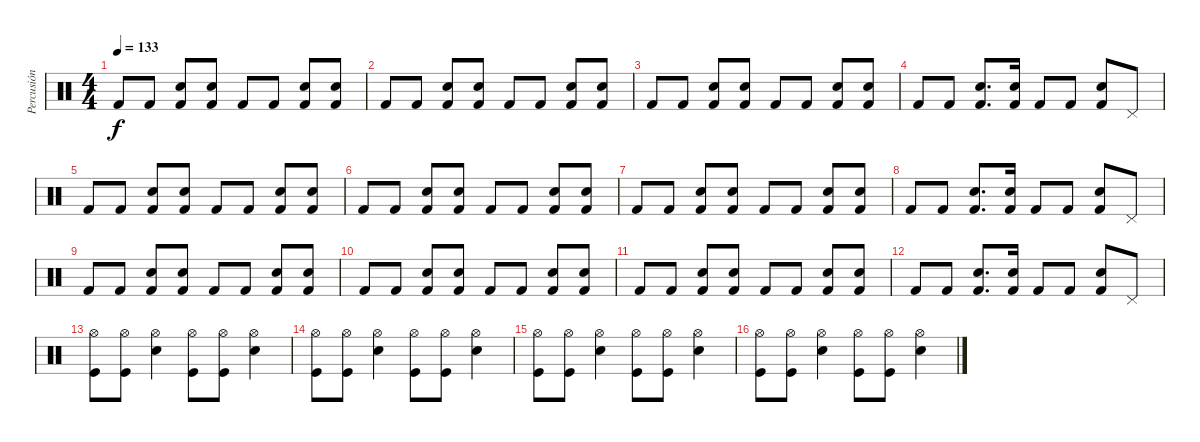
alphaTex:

\track ("Percusión" "Percusión") {instrument percussion}
\staff {score}
\articulation defaults
\ts (4 4)
\tempo 133
\clef neutral
\ks c "Kick (hit) 2".8{dy f} "Kick (hit) 2".8
("Kick (hit) 2" "Snare (hit) 2").8 ("Kick (hit) 2" "Snare (hit) 2").8 "Kick (hit) 2".8 "Kick (hit) 2".8 ("Kick (hit) 2" "Snare (hit) 2").8 ("Kick (hit) 2" "Snare (hit) 2").8 |
"Kick (hit) 2".8 "Kick (hit) 2".8 ("Kick (hit) 2" "Snare (hit) 2").8 ("Kick (hit) 2" "Snare (hit) 2").8 "Kick (hit) 2".8 "Kick (hit) 2".8 ("Kick (hit) 2" "Snare (hit) 2").8 ("Kick (hit) 2" "Snare (hit) 2").8 |
"Kick (hit) 2".8 "Kick (hit) 2".8 ("Kick (hit) 2" "Snare (hit) 2").8 ("Kick (hit) 2" "Snare (hit) 2").8 "Kick (hit) 2".8 "Kick (hit) 2".8 ("Kick (hit) 2" "Snare (hit) 2").8 ("Kick (hit) 2" "Snare (hit) 2").8 |
"Kick (hit) 2".8 "Kick (hit) 2".8 ("Kick (hit) 2" "Snare (hit) 2").8{d} ("Kick (hit) 2" "Snare (hit) 2").16 "Kick (hit) 2".8 "Kick (hit) 2".8 ("Kick (hit) 2" "Snare (hit) 2").8 "Pedal Hi-Hat (hit)".8 |
"Kick (hit) 2".8 "Kick (hit) 2".8 ("Kick (hit) 2" "Snare (hit) 2").8 ("Kick (hit) 2" "Snare (hit) 2").8 "Kick (hit) 2".8 "Kick (hit) 2".8 ("Kick (hit) 2" "Snare (hit) 2").8 ("Kick (hit) 2" "Snare (hit) 2").8 |
"Kick (hit) 2".8 "Kick (hit) 2".8 ("Kick (hit) 2" "Snare (hit) 2").8 ("Kick (hit) 2" "Snare (hit) 2").8 "Kick (hit) 2".8 "Kick (hit) 2".8 ("Kick (hit) 2" "Snare (hit) 2").8 ("Kick (hit) 2" "Snare (hit) 2").8 |
"Kick (hit) 2".8 "Kick (hit) 2".8 ("Kick (hit) 2" "Snare (hit) 2").8 ("Kick (hit) 2" "Snare (hit) 2").8 "Kick (hit) 2".8 "Kick (hit) 2".8 ("Kick (hit) 2" "Snare (hit) 2").8 ("Kick (hit) 2" "Snare (hit) 2").8 |
"Kick (hit) 2".8 "Kick (hit) 2".8 ("Kick (hit) 2" "Snare (hit) 2").8{d} ("Kick (hit) 2" "Snare (hit) 2").16 "Kick (hit) 2".8 "Kick (hit) 2".8 ("Kick (hit) 2" "Snare (hit) 2").8 "Pedal Hi-Hat (hit)".8 |
"Kick (hit) 2".8 "Kick (hit) 2".8 ("Kick (hit) 2" "Snare (hit) 2").8 ("Kick (hit) 2" "Snare (hit) 2").8 "Kick (hit) 2".8 "Kick (hit) 2".8 ("Kick (hit) 2" "Snare (hit) 2").8 ("Kick (hit) 2" "Snare (hit) 2").8 |
"Kick (hit) 2".8 "Kick (hit) 2".8 ("Kick (hit) 2" "Snare (hit) 2").8 ("Kick (hit) 2" "Snare (hit) 2").8 "Kick (hit) 2".8 "Kick (hit) 2".8 ("Kick (hit) 2" "Snare (hit) 2").8 ("Kick (hit) 2" "Snare (hit) 2").8 |
"Kick (hit) 2".8 "Kick (hit) 2".8 ("Kick (hit) 2" "Snare (hit) 2").8 ("Kick (hit) 2" "Snare (hit) 2").8 "Kick (hit) 2".8 "Kick (hit) 2".8 ("Kick (hit) 2" "Snare (hit) 2").8 ("Kick (hit) 2" "Snare (hit) 2").8 |
"Kick (hit) 2".8 "Kick (hit) 2".8 ("Kick (hit) 2" "Snare (hit) 2").8{d} ("Kick (hit) 2" "Snare (hit) 2").16 "Kick (hit) 2".8 "Kick (hit) 2".8 ("Kick (hit) 2" "Snare (hit) 2").8 "Pedal Hi-Hat (hit)".8 |
("Kick (hit)" "Hi-Hat (open)").8 ("Kick (hit)" "Hi-Hat (open)").8 ("Snare (hit) 2" "Hi-Hat (open)").4 ("Kick (hit)" "Hi-Hat (open)").8 ("Kick (hit)" "Hi-Hat (open)").8 ("Snare (hit) 2" "Hi-Hat (open)").4 |
("Kick (hit)" "Hi-Hat (open)").8 ("Kick (hit)" "Hi-Hat (open)").8 ("Snare (hit) 2" "Hi-Hat (open)").4 ("Kick (hit)" "Hi-Hat (open)").8 ("Kick (hit)" "Hi-Hat (open)").8 ("Snare (hit) 2" "Hi-Hat (open)").4 |
("Kick (hit)" "Hi-Hat (open)").8 ("Kick (hit)" "Hi-Hat (open)").8 ("Snare (hit) 2" "Hi-Hat (open)").4 ("Kick (hit)" "Hi-Hat (open)").8 ("Kick (hit)" "Hi-Hat (open)").8 ("Snare (hit) 2" "Hi-Hat (open)").4 |
("Kick (hit)" "Hi-Hat (open)").8 ("Kick (hit)" "Hi-Hat (open)").8 ("Snare (hit) 2" "Hi-Hat (open)").4 ("Kick (hit)" "Hi-Hat (open)").8 ("Kick (hit)" "Hi-Hat (open)").8 ("Snare (hit) 2" "Hi-Hat (open)").4
